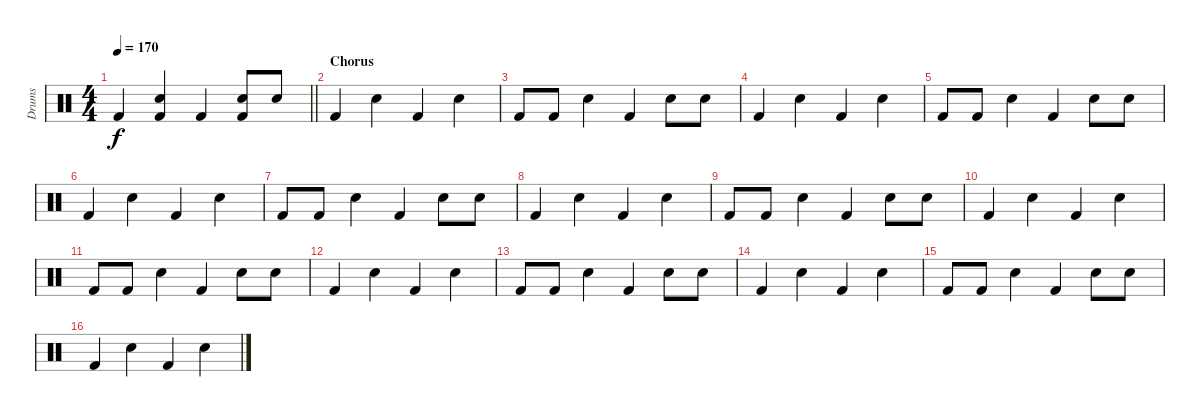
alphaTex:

\track ("Drums" "Drums") {instrument percussion}
\staff {score}
\articulation defaults
\ts (4 4)
\tempo 170
\clef neutral
\barLineRight lightlight
\ks c "Kick (hit) 2".4{dy f}
("Hand Clap (hit)" "Kick (hit) 2").4 "Kick (hit) 2".4 ("Hand Clap (hit)" "Kick (hit) 2").8 "Hand Clap (hit)".8 |
\section ("" "Chorus")
"Kick (hit) 2".4 "Hand Clap (hit)".4 "Kick (hit) 2".4 "Hand Clap (hit)".4 |
"Kick (hit) 2".8 "Kick (hit) 2".8 "Hand Clap (hit)".4 "Kick (hit) 2".4 "Hand Clap (hit)".8 "Hand Clap (hit)".8 |
"Kick (hit) 2".4 "Hand Clap (hit)".4 "Kick (hit) 2".4 "Hand Clap (hit)".4 |
"Kick (hit) 2".8 "Kick (hit) 2".8 "Hand Clap (hit)".4 "Kick (hit) 2".4 "Hand Clap (hit)".8 "Hand Clap (hit)".8 |
"Kick (hit) 2".4 "Hand Clap (hit)".4 "Kick (hit) 2".4 "Hand Clap (hit)".4 |
"Kick (hit) 2".8 "Kick (hit) 2".8 "Hand Clap (hit)".4 "Kick (hit) 2".4 "Hand Clap (hit)".8 "Hand Clap (hit)".8 |
"Kick (hit) 2".4 "Hand Clap (hit)".4 "Kick (hit) 2".4 "Hand Clap (hit)".4 |
"Kick (hit) 2".8 "Kick (hit) 2".8 "Hand Clap (hit)".4 "Kick (hit) 2".4 "Hand Clap (hit)".8 "Hand Clap (hit)".8 |
"Kick (hit) 2".4 "Hand Clap (hit)".4 "Kick (hit) 2".4 "Hand Clap (hit)".4 |
"Kick (hit) 2".8 "Kick (hit) 2".8 "Hand Clap (hit)".4 "Kick (hit) 2".4 "Hand Clap (hit)".8 "Hand Clap (hit)".8 |
"Kick (hit) 2".4 "Hand Clap (hit)".4 "Kick (hit) 2".4 "Hand Clap (hit)".4 |
"Kick (hit) 2".8 "Kick (hit) 2".8 "Hand Clap (hit)".4 "Kick (hit) 2".4 "Hand Clap (hit)".8 "Hand Clap (hit)".8 |
"Kick (hit) 2".4 "Hand Clap (hit)".4 "Kick (hit) 2".4 "Hand Clap (hit)".4 |
"Kick (hit) 2".8 "Kick (hit) 2".8 "Hand Clap (hit)".4 "Kick (hit) 2".4 "Hand Clap (hit)".8 "Hand Clap (hit)".8 |
"Kick (hit) 2".4 "Hand Clap (hit)".4 "Kick (hit) 2".4 "Hand Clap (hit)".4
